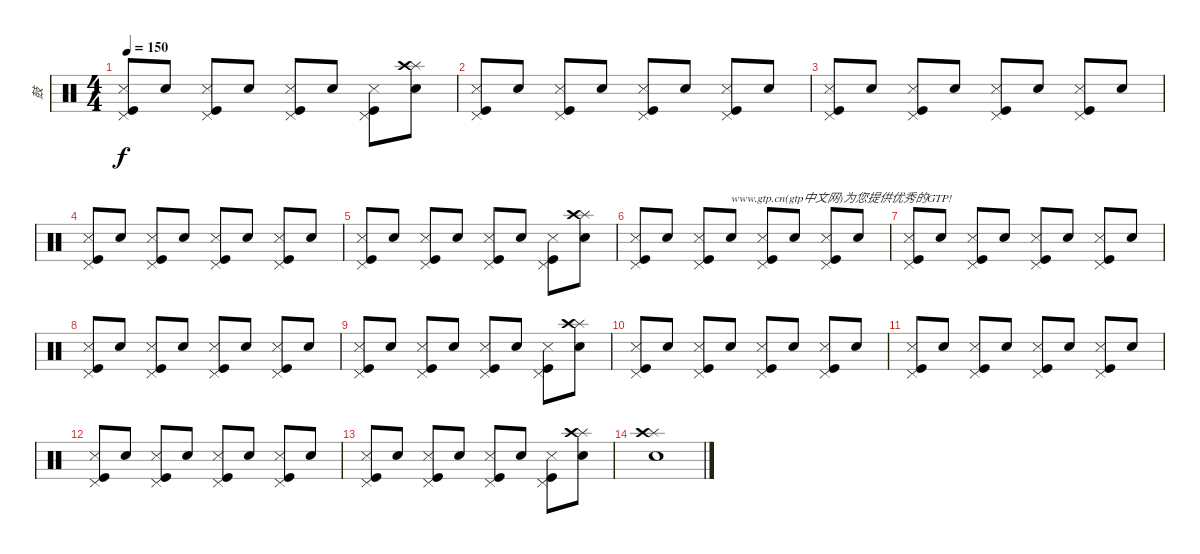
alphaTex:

\track ("鼓" "鼓") {instrument percussion}
\staff {score}
\articulation defaults
\ts (4 4)
\tempo 150
\clef neutral
\ks c
("Kick (hit)" "Snare (side stick) 3" "Pedal Hi-Hat (hit)").8{dy f} "Snare (hit) 2".8 ("Kick (hit)" "Snare (side stick) 3" "Pedal Hi-Hat (hit)").8 "Snare (hit) 2".8 ("Kick (hit)" "Snare (side stick) 3" "Pedal Hi-Hat (hit)").8 "Snare (hit) 2".8 ("Kick (hit)" "Snare (side stick) 3" "Pedal Hi-Hat (hit)").8 ("Snare (hit) 2" "Splash (hit)" "Crash high (hit)").8 |
("Kick (hit)" "Snare (side stick) 3" "Pedal Hi-Hat (hit)").8 "Snare (hit) 2".8 ("Kick (hit)" "Snare (side stick) 3" "Pedal Hi-Hat (hit)").8 "Snare (hit) 2".8 ("Kick (hit)" "Snare (side stick) 3" "Pedal Hi-Hat (hit)").8 "Snare (hit) 2".8 ("Kick (hit)" "Snare (side stick) 3" "Pedal Hi-Hat (hit)").8 "Snare (hit) 2".8 |
("Kick (hit)" "Snare (side stick) 3" "Pedal Hi-Hat (hit)").8 "Snare (hit) 2".8 ("Kick (hit)" "Snare (side stick) 3" "Pedal Hi-Hat (hit)").8 "Snare (hit) 2".8 ("Kick (hit)" "Snare (side stick) 3" "Pedal Hi-Hat (hit)").8 "Snare (hit) 2".8 ("Kick (hit)" "Snare (side stick) 3" "Pedal Hi-Hat (hit)").8 "Snare (hit) 2".8 |
("Kick (hit)" "Snare (side stick) 3" "Pedal Hi-Hat (hit)").8 "Snare (hit) 2".8 ("Kick (hit)" "Snare (side stick) 3" "Pedal Hi-Hat (hit)").8 "Snare (hit) 2".8 ("Kick (hit)" "Snare (side stick) 3" "Pedal Hi-Hat (hit)").8 "Snare (hit) 2".8 ("Kick (hit)" "Snare (side stick) 3" "Pedal Hi-Hat (hit)").8 "Snare (hit) 2".8 |
("Kick (hit)" "Snare (side stick) 3" "Pedal Hi-Hat (hit)").8 "Snare (hit) 2".8 ("Kick (hit)" "Snare (side stick) 3" "Pedal Hi-Hat (hit)").8 "Snare (hit) 2".8 ("Kick (hit)" "Snare (side stick) 3" "Pedal Hi-Hat (hit)").8 "Snare (hit) 2".8 ("Kick (hit)" "Snare (side stick) 3" "Pedal Hi-Hat (hit)").8 ("Snare (hit) 2" "Splash (hit)" "Crash high (hit)").8 |
("Kick (hit)" "Snare (side stick) 3" "Pedal Hi-Hat (hit)").8 "Snare (hit) 2".8 ("Kick (hit)" "Snare (side stick) 3" "Pedal Hi-Hat (hit)").8 "Snare (hit) 2".8{txt "www.gtp.cn(gtp中文网)为您提供优秀的GTP!"} ("Kick (hit)" "Snare (side stick) 3" "Pedal Hi-Hat (hit)").8 "Snare (hit) 2".8 ("Kick (hit)" "Snare (side stick) 3" "Pedal Hi-Hat (hit)").8 "Snare (hit) 2".8 |
("Kick (hit)" "Snare (side stick) 3" "Pedal Hi-Hat (hit)").8 "Snare (hit) 2".8 ("Kick (hit)" "Snare (side stick) 3" "Pedal Hi-Hat (hit)").8 "Snare (hit) 2".8 ("Kick (hit)" "Snare (side stick) 3" "Pedal Hi-Hat (hit)").8 "Snare (hit) 2".8 ("Kick (hit)" "Snare (side stick) 3" "Pedal Hi-Hat (hit)").8 "Snare (hit) 2".8 |
("Kick (hit)" "Snare (side stick) 3" "Pedal Hi-Hat (hit)").8 "Snare (hit) 2".8 ("Kick (hit)" "Snare (side stick) 3" "Pedal Hi-Hat (hit)").8 "Snare (hit) 2".8 ("Kick (hit)" "Snare (side stick) 3" "Pedal Hi-Hat (hit)").8 "Snare (hit) 2".8 ("Kick (hit)" "Snare (side stick) 3" "Pedal Hi-Hat (hit)").8 "Snare (hit) 2".8 |
("Kick (hit)" "Snare (side stick) 3" "Pedal Hi-Hat (hit)").8 "Snare (hit) 2".8 ("Kick (hit)" "Snare (side stick) 3" "Pedal Hi-Hat (hit)").8 "Snare (hit) 2".8 ("Kick (hit)" "Snare (side stick) 3" "Pedal Hi-Hat (hit)").8 "Snare (hit) 2".8 ("Kick (hit)" "Snare (side stick) 3" "Pedal Hi-Hat (hit)").8 ("Snare (hit) 2" "Splash (hit)" "Crash high (hit)").8 |
("Kick (hit)" "Snare (side stick) 3" "Pedal Hi-Hat (hit)").8 "Snare (hit) 2".8 ("Kick (hit)" "Snare (side stick) 3" "Pedal Hi-Hat (hit)").8 "Snare (hit) 2".8 ("Kick (hit)" "Snare (side stick) 3" "Pedal Hi-Hat (hit)").8 "Snare (hit) 2".8 ("Kick (hit)" "Snare (side stick) 3" "Pedal Hi-Hat (hit)").8 "Snare (hit) 2".8 |
("Kick (hit)" "Snare (side stick) 3" "Pedal Hi-Hat (hit)").8 "Snare (hit) 2".8 ("Kick (hit)" "Snare (side stick) 3" "Pedal Hi-Hat (hit)").8 "Snare (hit) 2".8 ("Kick (hit)" "Snare (side stick) 3" "Pedal Hi-Hat (hit)").8 "Snare (hit) 2".8 ("Kick (hit)" "Snare (side stick) 3" "Pedal Hi-Hat (hit)").8 "Snare (hit) 2".8 |
("Kick (hit)" "Snare (side stick) 3" "Pedal Hi-Hat (hit)").8 "Snare (hit) 2".8 ("Kick (hit)" "Snare (side stick) 3" "Pedal Hi-Hat (hit)").8 "Snare (hit) 2".8 ("Kick (hit)" "Snare (side stick) 3" "Pedal Hi-Hat (hit)").8 "Snare (hit) 2".8 ("Kick (hit)" "Snare (side stick) 3" "Pedal Hi-Hat (hit)").8 "Snare (hit) 2".8 |
("Kick (hit)" "Snare (side stick) 3" "Pedal Hi-Hat (hit)").8 "Snare (hit) 2".8 ("Kick (hit)" "Snare (side stick) 3" "Pedal Hi-Hat (hit)").8 "Snare (hit) 2".8 ("Kick (hit)" "Snare (side stick) 3" "Pedal Hi-Hat (hit)").8 "Snare (hit) 2".8 ("Kick (hit)" "Snare (side stick) 3" "Pedal Hi-Hat (hit)").8 ("Snare (hit) 2" "Splash (hit)" "Crash high (hit)").8 |
("Snare (hit) 2" "Splash (hit)" "Crash high (hit)").1
